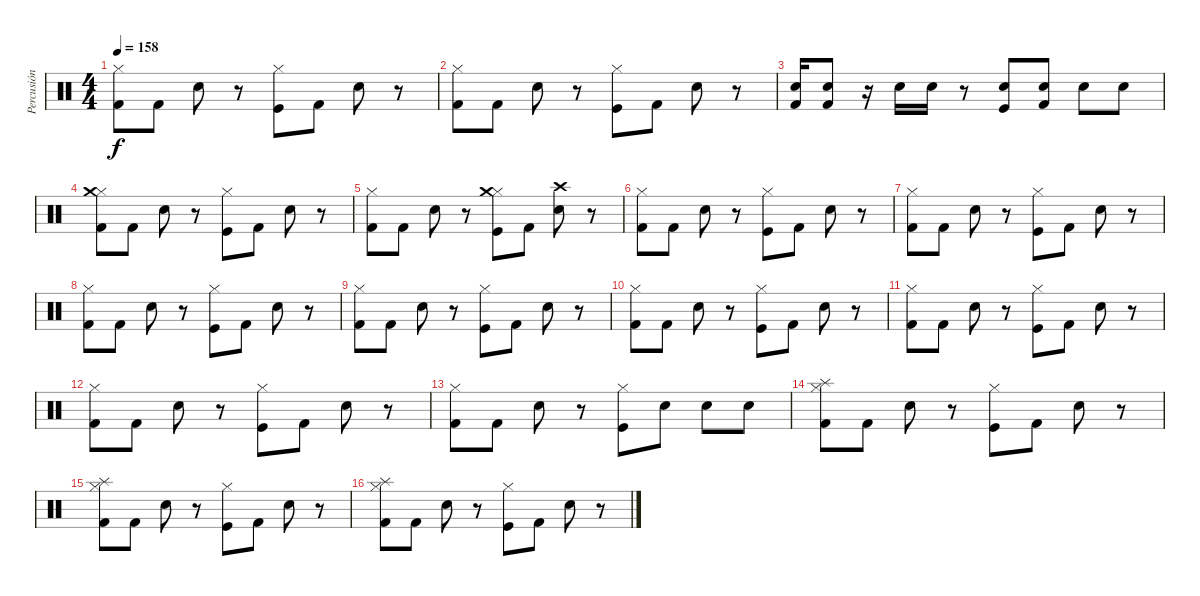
\track ("Percusión" "Percusión") {instrument percussion}
\staff {score}
\articulation defaults
\ts (4 4)
\tempo 158
\clef neutral
\ks c
("Hi-Hat (closed)" "Kick (hit) 2").8{dy f} "Kick (hit) 2".8 "Electric Snare (hit)".8 r.8 ("Hi-Hat (closed)" "Kick (hit)").8 "Kick (hit) 2".8 "Electric Snare (hit)".8 r.8 |
("Hi-Hat (closed)" "Kick (hit) 2").8 "Kick (hit) 2".8 "Electric Snare (hit)".8 r.8 ("Hi-Hat (closed)" "Kick (hit)").8 "Kick (hit) 2".8 "Electric Snare (hit)".8 r.8 |
("Electric Snare (hit)" "Kick (hit) 2").16 ("Electric Snare (hit)" "Kick (hit) 2").8 r.16 "Electric Snare (hit)".16 "Electric Snare (hit)".16 r.8 ("Electric Snare (hit)" "Kick (hit)").8 ("Electric Snare (hit)" "Kick (hit) 2").8 "Electric Snare (hit)".8 "Electric Snare (hit)".8 |
("Hi-Hat (closed)" "Kick (hit) 2" "Crash medium (hit)").8 "Kick (hit) 2".8 "Electric Snare (hit)".8 r.8 ("Hi-Hat (closed)" "Kick (hit)").8 "Kick (hit) 2".8 "Electric Snare (hit)".8 r.8 |
("Hi-Hat (closed)" "Kick (hit) 2").8 "Kick (hit) 2".8 "Electric Snare (hit)".8 r.8 ("Hi-Hat (closed)" "Kick (hit)" "Crash medium (hit)").8 "Kick (hit) 2".8 ("Electric Snare (hit)" "Crash high (hit)").8 r.8 |
("Hi-Hat (closed)" "Kick (hit) 2").8 "Kick (hit) 2".8 "Electric Snare (hit)".8 r.8 ("Hi-Hat (closed)" "Kick (hit)").8 "Kick (hit) 2".8 "Electric Snare (hit)".8 r.8 |
("Hi-Hat (closed)" "Kick (hit) 2").8 "Kick (hit) 2".8 "Electric Snare (hit)".8 r.8 ("Hi-Hat (closed)" "Kick (hit)").8 "Kick (hit) 2".8 "Electric Snare (hit)".8 r.8 |
("Hi-Hat (closed)" "Kick (hit) 2").8 "Kick (hit) 2".8 "Electric Snare (hit)".8 r.8 ("Hi-Hat (closed)" "Kick (hit)").8 "Kick (hit) 2".8 "Electric Snare (hit)".8 r.8 |
("Hi-Hat (closed)" "Kick (hit) 2").8 "Kick (hit) 2".8 "Electric Snare (hit)".8 r.8 ("Hi-Hat (closed)" "Kick (hit)").8 "Kick (hit) 2".8 "Electric Snare (hit)".8 r.8 |
("Hi-Hat (closed)" "Kick (hit) 2").8 "Kick (hit) 2".8 "Electric Snare (hit)".8 r.8 ("Hi-Hat (closed)" "Kick (hit)").8 "Kick (hit) 2".8 "Electric Snare (hit)".8 r.8 |
("Hi-Hat (closed)" "Kick (hit) 2").8 "Kick (hit) 2".8 "Electric Snare (hit)".8 r.8 ("Hi-Hat (closed)" "Kick (hit)").8 "Kick (hit) 2".8 "Electric Snare (hit)".8 r.8 |
("Hi-Hat (closed)" "Kick (hit) 2").8 "Kick (hit) 2".8 "Electric Snare (hit)".8 r.8 ("Hi-Hat (closed)" "Kick (hit)").8 "Kick (hit) 2".8 "Electric Snare (hit)".8 r.8 |
("Hi-Hat (closed)" "Kick (hit) 2").8 "Kick (hit) 2".8 "Electric Snare (hit)".8 r.8 ("Hi-Hat (closed)" "Kick (hit)").8 "Electric Snare (hit)".8 "Electric Snare (hit)".8 "Electric Snare (hit)".8 |
("Hi-Hat (closed)" "Splash (hit)" "Kick (hit) 2").8 "Kick (hit) 2".8 "Electric Snare (hit)".8 r.8 ("Hi-Hat (closed)" "Kick (hit)").8 "Kick (hit) 2".8 "Electric Snare (hit)".8 r.8 |
("Hi-Hat (closed)" "Splash (hit)" "Kick (hit) 2").8 "Kick (hit) 2".8 "Electric Snare (hit)".8 r.8 ("Hi-Hat (closed)" "Kick (hit)").8 "Kick (hit) 2".8 "Electric Snare (hit)".8 r.8 |
("Hi-Hat (closed)" "Splash (hit)" "Kick (hit) 2").8 "Kick (hit) 2".8 "Electric Snare (hit)".8 r.8 ("Hi-Hat (closed)" "Kick (hit)").8 "Kick (hit) 2".8 "Electric Snare (hit)".8 r.8
